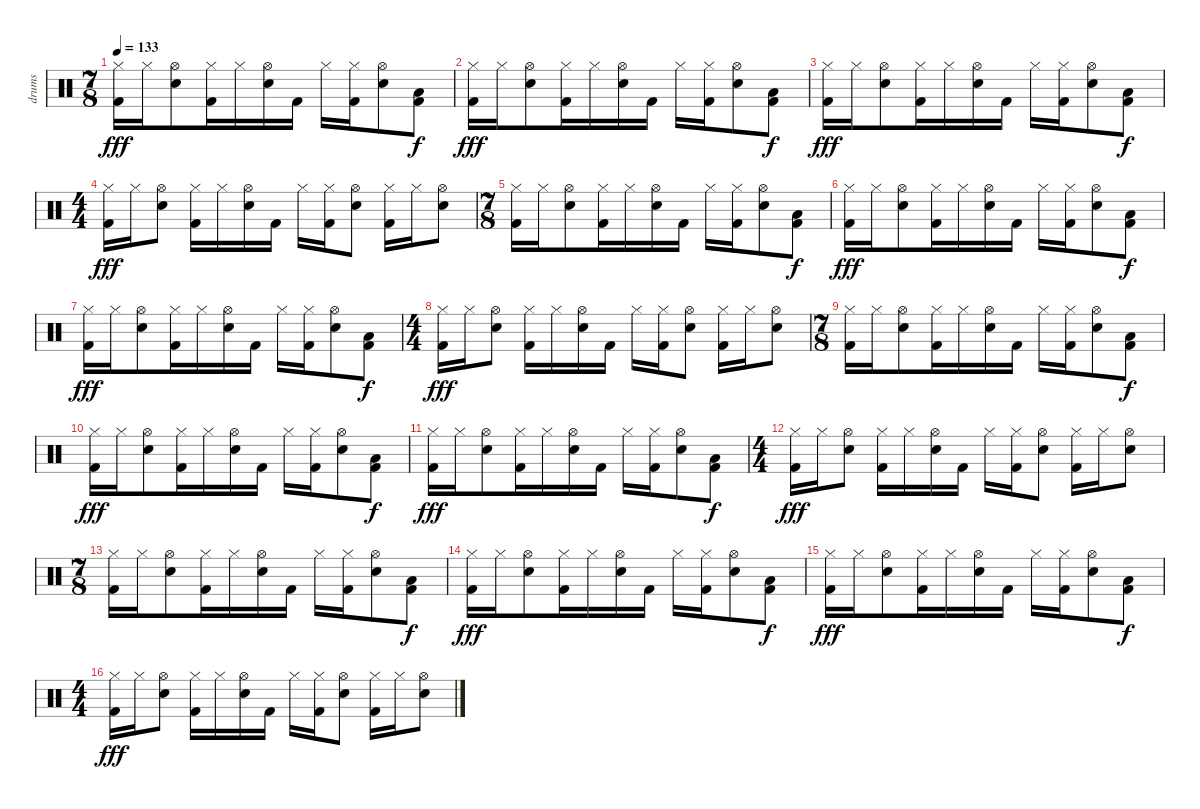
\track ("drums" "drums") {instrument percussion}
\staff {score}
\articulation defaults
\ts (7 8)
\tempo 133
\clef neutral
\ks c
("Kick (hit) 2" "Hi-Hat (closed)").16{dy fff} "Hi-Hat (closed)".16 ("Hi-Hat (open)" "Electric Snare (hit)").8 ("Kick (hit) 2" "Hi-Hat (closed)").16 "Hi-Hat (closed)".16 ("Hi-Hat (open)" "Electric Snare (hit)").16 "Kick (hit) 2".16 "Hi-Hat (closed)".16 ("Kick (hit) 2" "Hi-Hat (closed)").16 ("Hi-Hat (open)" "Electric Snare (hit)").8 ("Kick (hit) 2" "Low Floor Tom (hit)").8{dy f} |
("Kick (hit) 2" "Hi-Hat (closed)").16{dy fff} "Hi-Hat (closed)".16 ("Hi-Hat (open)" "Electric Snare (hit)").8 ("Kick (hit) 2" "Hi-Hat (closed)").16 "Hi-Hat (closed)".16 ("Hi-Hat (open)" "Electric Snare (hit)").16 "Kick (hit) 2".16 "Hi-Hat (closed)".16 ("Kick (hit) 2" "Hi-Hat (closed)").16 ("Hi-Hat (open)" "Electric Snare (hit)").8 ("Kick (hit) 2" "Low Floor Tom (hit)").8{dy f} |
("Kick (hit) 2" "Hi-Hat (closed)").16{dy fff} "Hi-Hat (closed)".16 ("Hi-Hat (open)" "Electric Snare (hit)").8 ("Kick (hit) 2" "Hi-Hat (closed)").16 "Hi-Hat (closed)".16 ("Hi-Hat (open)" "Electric Snare (hit)").16 "Kick (hit) 2".16 "Hi-Hat (closed)".16 ("Kick (hit) 2" "Hi-Hat (closed)").16 ("Hi-Hat (open)" "Electric Snare (hit)").8 ("Kick (hit) 2" "Low Floor Tom (hit)").8{dy f} |
\ts (4 4)
("Kick (hit) 2" "Hi-Hat (closed)").16{dy fff} "Hi-Hat (closed)".16 ("Hi-Hat (open)" "Electric Snare (hit)").8 ("Kick (hit) 2" "Hi-Hat (closed)").16 "Hi-Hat (closed)".16 ("Hi-Hat (open)" "Electric Snare (hit)").16 "Kick (hit) 2".16 "Hi-Hat (closed)".16 ("Kick (hit) 2" "Hi-Hat (closed)").16 ("Hi-Hat (open)" "Electric Snare (hit)").8 ("Hi-Hat (closed)" "Kick (hit) 2").16 "Hi-Hat (closed)".16 ("Hi-Hat (open)" "Electric Snare (hit)").8 |
\ts (7 8)
("Kick (hit) 2" "Hi-Hat (closed)").16 "Hi-Hat (closed)".16 ("Hi-Hat (open)" "Electric Snare (hit)").8 ("Kick (hit) 2" "Hi-Hat (closed)").16 "Hi-Hat (closed)".16 ("Hi-Hat (open)" "Electric Snare (hit)").16 "Kick (hit) 2".16 "Hi-Hat (closed)".16 ("Kick (hit) 2" "Hi-Hat (closed)").16 ("Hi-Hat (open)" "Electric Snare (hit)").8 ("Kick (hit) 2" "Low Floor Tom (hit)").8{dy f} |
("Kick (hit) 2" "Hi-Hat (closed)").16{dy fff} "Hi-Hat (closed)".16 ("Hi-Hat (open)" "Electric Snare (hit)").8 ("Kick (hit) 2" "Hi-Hat (closed)").16 "Hi-Hat (closed)".16 ("Hi-Hat (open)" "Electric Snare (hit)").16 "Kick (hit) 2".16 "Hi-Hat (closed)".16 ("Kick (hit) 2" "Hi-Hat (closed)").16 ("Hi-Hat (open)" "Electric Snare (hit)").8 ("Kick (hit) 2" "Low Floor Tom (hit)").8{dy f} |
("Kick (hit) 2" "Hi-Hat (closed)").16{dy fff} "Hi-Hat (closed)".16 ("Hi-Hat (open)" "Electric Snare (hit)").8 ("Kick (hit) 2" "Hi-Hat (closed)").16 "Hi-Hat (closed)".16 ("Hi-Hat (open)" "Electric Snare (hit)").16 "Kick (hit) 2".16 "Hi-Hat (closed)".16 ("Kick (hit) 2" "Hi-Hat (closed)").16 ("Hi-Hat (open)" "Electric Snare (hit)").8 ("Kick (hit) 2" "Low Floor Tom (hit)").8{dy f} |
\ts (4 4)
("Kick (hit) 2" "Hi-Hat (closed)").16{dy fff} "Hi-Hat (closed)".16 ("Hi-Hat (open)" "Electric Snare (hit)").8 ("Kick (hit) 2" "Hi-Hat (closed)").16 "Hi-Hat (closed)".16 ("Hi-Hat (open)" "Electric Snare (hit)").16 "Kick (hit) 2".16 "Hi-Hat (closed)".16 ("Kick (hit) 2" "Hi-Hat (closed)").16 ("Hi-Hat (open)" "Electric Snare (hit)").8 ("Hi-Hat (closed)" "Kick (hit) 2").16 "Hi-Hat (closed)".16 ("Hi-Hat (open)" "Electric Snare (hit)").8 |
\ts (7 8)
("Kick (hit) 2" "Hi-Hat (closed)").16 "Hi-Hat (closed)".16 ("Hi-Hat (open)" "Electric Snare (hit)").8 ("Kick (hit) 2" "Hi-Hat (closed)").16 "Hi-Hat (closed)".16 ("Hi-Hat (open)" "Electric Snare (hit)").16 "Kick (hit) 2".16 "Hi-Hat (closed)".16 ("Kick (hit) 2" "Hi-Hat (closed)").16 ("Hi-Hat (open)" "Electric Snare (hit)").8 ("Kick (hit) 2" "Low Floor Tom (hit)").8{dy f} |
("Kick (hit) 2" "Hi-Hat (closed)").16{dy fff} "Hi-Hat (closed)".16 ("Hi-Hat (open)" "Electric Snare (hit)").8 ("Kick (hit) 2" "Hi-Hat (closed)").16 "Hi-Hat (closed)".16 ("Hi-Hat (open)" "Electric Snare (hit)").16 "Kick (hit) 2".16 "Hi-Hat (closed)".16 ("Kick (hit) 2" "Hi-Hat (closed)").16 ("Hi-Hat (open)" "Electric Snare (hit)").8 ("Kick (hit) 2" "Low Floor Tom (hit)").8{dy f} |
("Kick (hit) 2" "Hi-Hat (closed)").16{dy fff} "Hi-Hat (closed)".16 ("Hi-Hat (open)" "Electric Snare (hit)").8 ("Kick (hit) 2" "Hi-Hat (closed)").16 "Hi-Hat (closed)".16 ("Hi-Hat (open)" "Electric Snare (hit)").16 "Kick (hit) 2".16 "Hi-Hat (closed)".16 ("Kick (hit) 2" "Hi-Hat (closed)").16 ("Hi-Hat (open)" "Electric Snare (hit)").8 ("Kick (hit) 2" "Low Floor Tom (hit)").8{dy f} |
\ts (4 4)
("Kick (hit) 2" "Hi-Hat (closed)").16{dy fff} "Hi-Hat (closed)".16 ("Hi-Hat (open)" "Electric Snare (hit)").8 ("Kick (hit) 2" "Hi-Hat (closed)").16 "Hi-Hat (closed)".16 ("Hi-Hat (open)" "Electric Snare (hit)").16 "Kick (hit) 2".16 "Hi-Hat (closed)".16 ("Kick (hit) 2" "Hi-Hat (closed)").16 ("Hi-Hat (open)" "Electric Snare (hit)").8 ("Hi-Hat (closed)" "Kick (hit) 2").16 "Hi-Hat (closed)".16 ("Hi-Hat (open)" "Electric Snare (hit)").8 |
\ts (7 8)
("Kick (hit) 2" "Hi-Hat (closed)").16 "Hi-Hat (closed)".16 ("Hi-Hat (open)" "Electric Snare (hit)").8 ("Kick (hit) 2" "Hi-Hat (closed)").16 "Hi-Hat (closed)".16 ("Hi-Hat (open)" "Electric Snare (hit)").16 "Kick (hit) 2".16 "Hi-Hat (closed)".16 ("Kick (hit) 2" "Hi-Hat (closed)").16 ("Hi-Hat (open)" "Electric Snare (hit)").8 ("Kick (hit) 2" "Low Floor Tom (hit)").8{dy f} |
("Kick (hit) 2" "Hi-Hat (closed)").16{dy fff} "Hi-Hat (closed)".16 ("Hi-Hat (open)" "Electric Snare (hit)").8 ("Kick (hit) 2" "Hi-Hat (closed)").16 "Hi-Hat (closed)".16 ("Hi-Hat (open)" "Electric Snare (hit)").16 "Kick (hit) 2".16 "Hi-Hat (closed)".16 ("Kick (hit) 2" "Hi-Hat (closed)").16 ("Hi-Hat (open)" "Electric Snare (hit)").8 ("Kick (hit) 2" "Low Floor Tom (hit)").8{dy f} |
("Kick (hit) 2" "Hi-Hat (closed)").16{dy fff} "Hi-Hat (closed)".16 ("Hi-Hat (open)" "Electric Snare (hit)").8 ("Kick (hit) 2" "Hi-Hat (closed)").16 "Hi-Hat (closed)".16 ("Hi-Hat (open)" "Electric Snare (hit)").16 "Kick (hit) 2".16 "Hi-Hat (closed)".16 ("Kick (hit) 2" "Hi-Hat (closed)").16 ("Hi-Hat (open)" "Electric Snare (hit)").8 ("Kick (hit) 2" "Low Floor Tom (hit)").8{dy f} |
\ts (4 4)
("Kick (hit) 2" "Hi-Hat (closed)").16{dy fff} "Hi-Hat (closed)".16 ("Hi-Hat (open)" "Electric Snare (hit)").8 ("Kick (hit) 2" "Hi-Hat (closed)").16 "Hi-Hat (closed)".16 ("Hi-Hat (open)" "Electric Snare (hit)").16 "Kick (hit) 2".16 "Hi-Hat (closed)".16 ("Kick (hit) 2" "Hi-Hat (closed)").16 ("Hi-Hat (open)" "Electric Snare (hit)").8 ("Hi-Hat (closed)" "Kick (hit) 2").16 "Hi-Hat (closed)".16 ("Hi-Hat (open)" "Electric Snare (hit)").8
